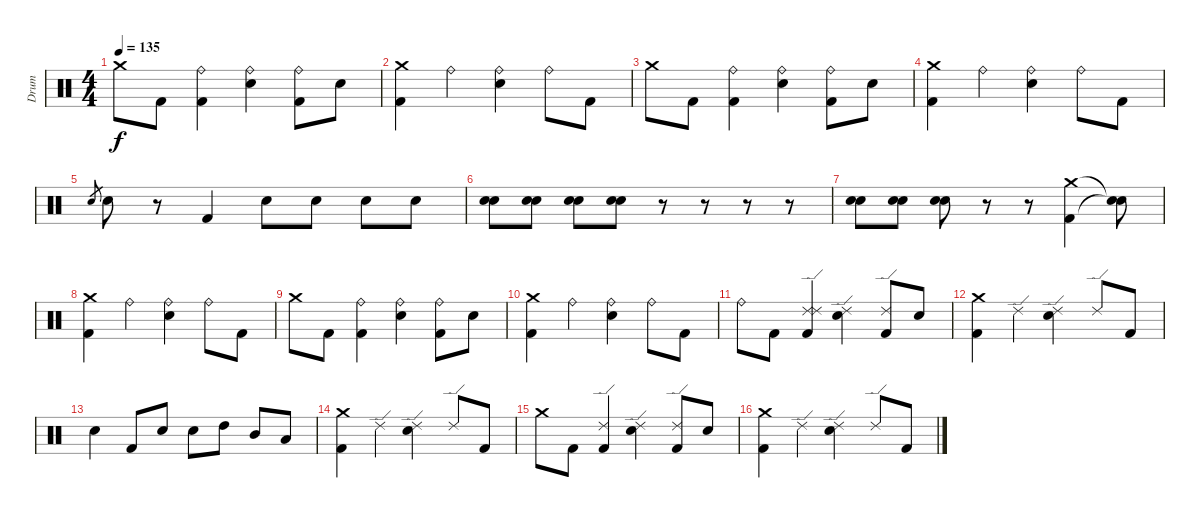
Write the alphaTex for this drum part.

\track ("Drum" "Drum") {instrument percussion}
\staff {score}
\articulation defaults
\ts (4 4)
\tempo 135
\clef neutral
\ks c "Crash medium (hit)".8{dy f} "Kick (hit) 2".8
("Ride (bell)" "Kick (hit) 2").4 ("Ride (bell)" "Electric Snare (hit)").4 ("Ride (bell)" "Kick (hit) 2").8 "Electric Snare (hit)".8 |
("Crash medium (hit)" "Kick (hit) 2").4 "Ride (bell)".4 ("Ride (bell)" "Electric Snare (hit)").4 "Ride (bell)".8 "Kick (hit) 2".8 |
"Crash medium (hit)".8 "Kick (hit) 2".8 ("Ride (bell)" "Kick (hit) 2").4 ("Ride (bell)" "Electric Snare (hit)").4 ("Ride (bell)" "Kick (hit) 2").8 "Electric Snare (hit)".8 |
("Crash medium (hit)" "Kick (hit) 2").4 "Ride (bell)".4 ("Ride (bell)" "Electric Snare (hit)").4 "Ride (bell)".8 "Kick (hit) 2".8 |
"Electric Snare (hit)".8{gr} "Electric Snare (hit)".8 r.8 "Kick (hit) 2".4 "Electric Snare (hit)".8 "Electric Snare (hit)".8 "Electric Snare (hit)".8 "Electric Snare (hit)".8 |
("Electric Snare (hit)" "Electric Snare (hit)").8 ("Electric Snare (hit)" "Electric Snare (hit)").8 ("Electric Snare (hit)" "Electric Snare (hit)").8 ("Electric Snare (hit)" "Electric Snare (hit)").8 r.8 r.8 r.8 r.8 |
("Electric Snare (hit)" "Electric Snare (hit)").8 ("Electric Snare (hit)" "Electric Snare (hit)").8 ("Electric Snare (hit)" "Electric Snare (hit)").8 r.8 r.8 ("Crash medium (hit)" "Kick (hit) 2").4 ("Snare (hit)"{t} "Snare (hit)"{t}).8 |
("Crash medium (hit)" "Kick (hit) 2").4 "Ride (bell)".4 ("Ride (bell)" "Electric Snare (hit)").4 "Ride (bell)".8 "Kick (hit) 2".8 |
"Crash medium (hit)".8 "Kick (hit) 2".8 ("Ride (bell)" "Kick (hit) 2").4 ("Ride (bell)" "Electric Snare (hit)").4 ("Ride (bell)" "Kick (hit) 2").8 "Electric Snare (hit)".8 |
("Crash medium (hit)" "Kick (hit) 2").4 "Ride (bell)".4 ("Ride (bell)" "Electric Snare (hit)").4 "Ride (bell)".8 "Kick (hit) 2".8 |
"Ride (bell)".8 "Kick (hit) 2".8 ("Ride (edge) 2" "Ride (edge) 2" "Kick (hit) 2").4 ("Ride (edge) 2" "Electric Snare (hit)").4 ("Ride (edge) 2" "Kick (hit) 2").8 "Electric Snare (hit)".8 |
("Crash medium (hit)" "Kick (hit) 2").4 "Ride (edge) 2".4 ("Ride (edge) 2" "Electric Snare (hit)").4 "Ride (edge) 2".8 "Kick (hit) 2".8 |
"Electric Snare (hit)".4 "Kick (hit) 2".8 "Electric Snare (hit)".8 "Electric Snare (hit)".8 "High Tom (hit)".8 "Mid Tom (hit)".8 "Low Tom (hit)".8 |
("Crash medium (hit)" "Kick (hit) 2").4 "Ride (edge) 2".4 ("Ride (edge) 2" "Electric Snare (hit)").4 "Ride (edge) 2".8 "Kick (hit) 2".8 |
"Crash medium (hit)".8 "Kick (hit) 2".8 ("Ride (edge) 2" "Kick (hit) 2").4 ("Ride (edge) 2" "Electric Snare (hit)").4 ("Ride (edge) 2" "Kick (hit) 2").8 "Electric Snare (hit)".8 |
("Crash medium (hit)" "Kick (hit) 2").4 "Ride (edge) 2".4 ("Ride (edge) 2" "Electric Snare (hit)").4 "Ride (edge) 2".8 "Kick (hit) 2".8
